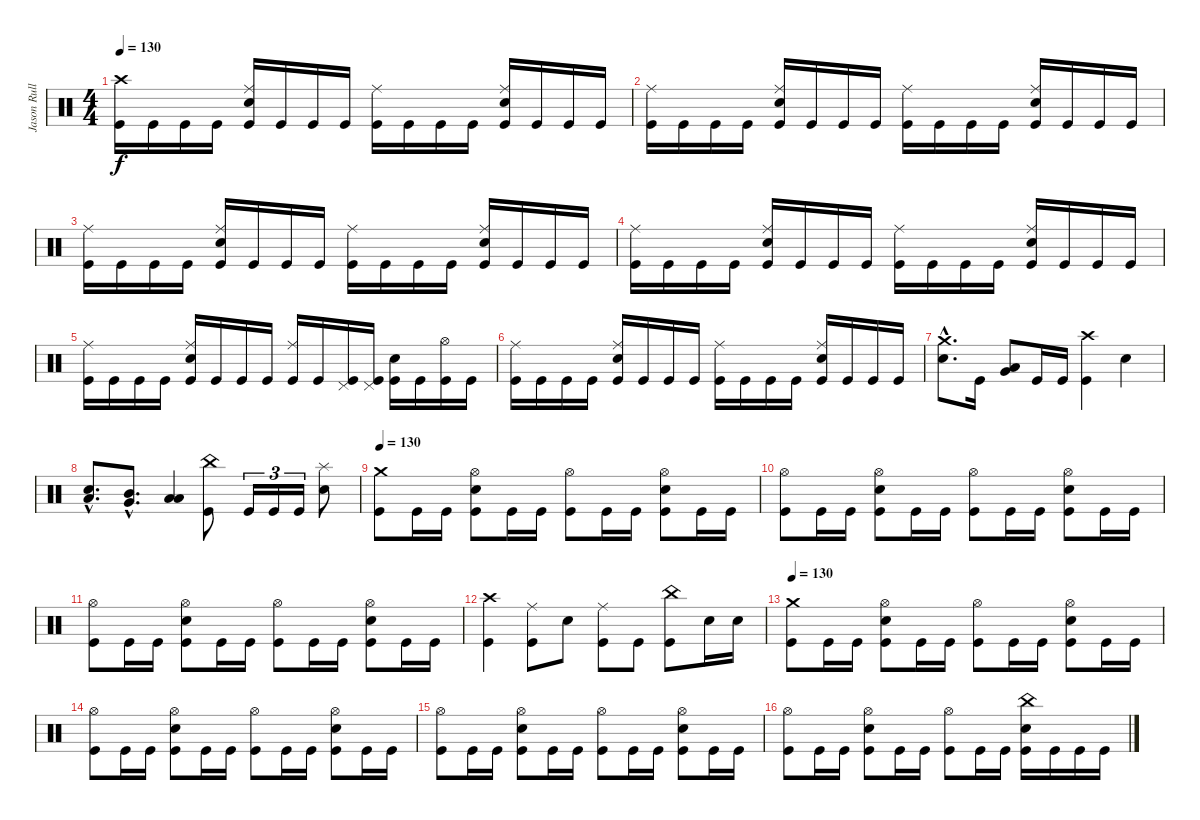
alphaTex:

\track ("Jason Rullo - Batterie" "Jason Rull") {instrument percussion}
\staff {score}
\articulation defaults
\ts (4 4)
\tempo 130
\clef neutral
\ks c
("Crash high (hit)" "Kick (hit)").16{dy f} "Kick (hit)".16 "Kick (hit)".16 "Kick (hit)".16 ("Ride (middle)" "Snare (hit) 2" "Kick (hit)").16 "Kick (hit)".16 "Kick (hit)".16 "Kick (hit)".16 ("Ride (middle)" "Kick (hit)").16 "Kick (hit)".16 "Kick (hit)".16 "Kick (hit)".16 ("Ride (middle)" "Snare (hit) 2" "Kick (hit)").16 "Kick (hit)".16 "Kick (hit)".16 "Kick (hit)".16 |
("Ride (middle)" "Kick (hit)").16 "Kick (hit)".16 "Kick (hit)".16 "Kick (hit)".16 ("Ride (middle)" "Snare (hit) 2" "Kick (hit)").16 "Kick (hit)".16 "Kick (hit)".16 "Kick (hit)".16 ("Ride (middle)" "Kick (hit)").16 "Kick (hit)".16 "Kick (hit)".16 "Kick (hit)".16 ("Ride (middle)" "Snare (hit) 2" "Kick (hit)").16 "Kick (hit)".16 "Kick (hit)".16 "Kick (hit)".16 |
("Ride (middle)" "Kick (hit)").16 "Kick (hit)".16 "Kick (hit)".16 "Kick (hit)".16 ("Ride (middle)" "Snare (hit) 2" "Kick (hit)").16 "Kick (hit)".16 "Kick (hit)".16 "Kick (hit)".16 ("Ride (middle)" "Kick (hit)").16 "Kick (hit)".16 "Kick (hit)".16 "Kick (hit)".16 ("Ride (middle)" "Snare (hit) 2" "Kick (hit)").16 "Kick (hit)".16 "Kick (hit)".16 "Kick (hit)".16 |
("Ride (middle)" "Kick (hit)").16 "Kick (hit)".16 "Kick (hit)".16 "Kick (hit)".16 ("Ride (middle)" "Snare (hit) 2" "Kick (hit)").16 "Kick (hit)".16 "Kick (hit)".16 "Kick (hit)".16 ("Ride (middle)" "Kick (hit)").16 "Kick (hit)".16 "Kick (hit)".16 "Kick (hit)".16 ("Ride (middle)" "Snare (hit) 2" "Kick (hit)").16 "Kick (hit)".16 "Kick (hit)".16 "Kick (hit)".16 |
("Ride (middle)" "Kick (hit)").16 "Kick (hit)".16 "Kick (hit)".16 "Kick (hit)".16 ("Ride (middle)" "Snare (hit) 2" "Kick (hit)").16 "Kick (hit)".16 "Kick (hit)".16 "Kick (hit)".16 ("Ride (middle)" "Kick (hit)").16 "Kick (hit)".16 ("Pedal Hi-Hat (hit)" "Kick (hit)").16 ("Pedal Hi-Hat (hit)" "Kick (hit)").16 ("Snare (hit) 2" "Kick (hit)").16 "Kick (hit)".16 ("Hi-Hat (open)" "Kick (hit)").16 "Kick (hit)".16 |
("Ride (middle)" "Kick (hit)").16 "Kick (hit)".16 "Kick (hit)".16 "Kick (hit)".16 ("Ride (middle)" "Snare (hit) 2" "Kick (hit)").16 "Kick (hit)".16 "Kick (hit)".16 "Kick (hit)".16 ("Ride (middle)" "Kick (hit)").16 "Kick (hit)".16 "Kick (hit)".16 "Kick (hit)".16 ("Ride (middle)" "Snare (hit) 2" "Kick (hit)").16 "Kick (hit)".16 "Kick (hit)".16 "Kick (hit)".16 |
("Crash medium (hit)"{hac} "Snare (hit) 2"{hac}).8{d} "Kick (hit)".16 ("Very Low Tom (hit)" "Low Tom (hit)").8 "Kick (hit)".16 "Kick (hit)".16 ("Crash high (hit)" "Kick (hit)").4 "Snare (hit) 2".4 |
("Low Tom (hit)"{hac} "Snare (hit) 2"{hac}).8{d} ("Very Low Tom (hit)"{hac} "Mid Tom (hit)"{hac}).8{d} ("Low Floor Tom (hit)" "Low Tom (hit)").4 ("China (hit)" "Kick (hit)").8 "Kick (hit)".16{tu (3 2)} "Kick (hit)".16{tu (3 2)} "Kick (hit)".16{tu (3 2)} ("Splash (hit)" "Snare (hit) 2").8 |
\tempo 130
("Crash medium (hit)" "Kick (hit)").8 "Kick (hit)".16 "Kick (hit)".16 ("Hi-Hat (open)" "Snare (hit) 2" "Kick (hit)").8 "Kick (hit)".16 "Kick (hit)".16 ("Hi-Hat (open)" "Kick (hit)").8 "Kick (hit)".16 "Kick (hit)".16 ("Hi-Hat (open)" "Snare (hit) 2" "Kick (hit)").8 "Kick (hit)".16 "Kick (hit)".16 |
("Hi-Hat (open)" "Kick (hit)").8 "Kick (hit)".16 "Kick (hit)".16 ("Hi-Hat (open)" "Snare (hit) 2" "Kick (hit)").8 "Kick (hit)".16 "Kick (hit)".16 ("Hi-Hat (open)" "Kick (hit)").8 "Kick (hit)".16 "Kick (hit)".16 ("Hi-Hat (open)" "Snare (hit) 2" "Kick (hit)").8 "Kick (hit)".16 "Kick (hit)".16 |
("Hi-Hat (open)" "Kick (hit)").8 "Kick (hit)".16 "Kick (hit)".16 ("Hi-Hat (open)" "Snare (hit) 2" "Kick (hit)").8 "Kick (hit)".16 "Kick (hit)".16 ("Hi-Hat (open)" "Kick (hit)").8 "Kick (hit)".16 "Kick (hit)".16 ("Hi-Hat (open)" "Snare (hit) 2" "Kick (hit)").8 "Kick (hit)".16 "Kick (hit)".16 |
("Crash high (hit)" "Kick (hit)").4 ("Ride (middle)" "Kick (hit)").8 "Snare (hit) 2".8 ("Ride (middle)" "Kick (hit)").8 "Kick (hit)".8 ("China (hit)" "Kick (hit)").8 "Snare (hit) 2".16 "Snare (hit) 2".16 |
\tempo 130
("Crash medium (hit)" "Kick (hit)").8 "Kick (hit)".16 "Kick (hit)".16 ("Hi-Hat (open)" "Snare (hit) 2" "Kick (hit)").8 "Kick (hit)".16 "Kick (hit)".16 ("Hi-Hat (open)" "Kick (hit)").8 "Kick (hit)".16 "Kick (hit)".16 ("Hi-Hat (open)" "Snare (hit) 2" "Kick (hit)").8 "Kick (hit)".16 "Kick (hit)".16 |
("Hi-Hat (open)" "Kick (hit)").8 "Kick (hit)".16 "Kick (hit)".16 ("Hi-Hat (open)" "Snare (hit) 2" "Kick (hit)").8 "Kick (hit)".16 "Kick (hit)".16 ("Hi-Hat (open)" "Kick (hit)").8 "Kick (hit)".16 "Kick (hit)".16 ("Hi-Hat (open)" "Snare (hit) 2" "Kick (hit)").8 "Kick (hit)".16 "Kick (hit)".16 |
("Hi-Hat (open)" "Kick (hit)").8 "Kick (hit)".16 "Kick (hit)".16 ("Hi-Hat (open)" "Snare (hit) 2" "Kick (hit)").8 "Kick (hit)".16 "Kick (hit)".16 ("Hi-Hat (open)" "Kick (hit)").8 "Kick (hit)".16 "Kick (hit)".16 ("Hi-Hat (open)" "Snare (hit) 2" "Kick (hit)").8 "Kick (hit)".16 "Kick (hit)".16 |
("Hi-Hat (open)" "Kick (hit)").8 "Kick (hit)".16 "Kick (hit)".16 ("Hi-Hat (open)" "Snare (hit) 2" "Kick (hit)").8 "Kick (hit)".16 "Kick (hit)".16 ("Hi-Hat (open)" "Kick (hit)").8 "Kick (hit)".16 "Kick (hit)".16 ("China (hit)" "Snare (hit) 2" "Kick (hit)").16 "Kick (hit)".16 "Kick (hit)".16 "Kick (hit)".16
